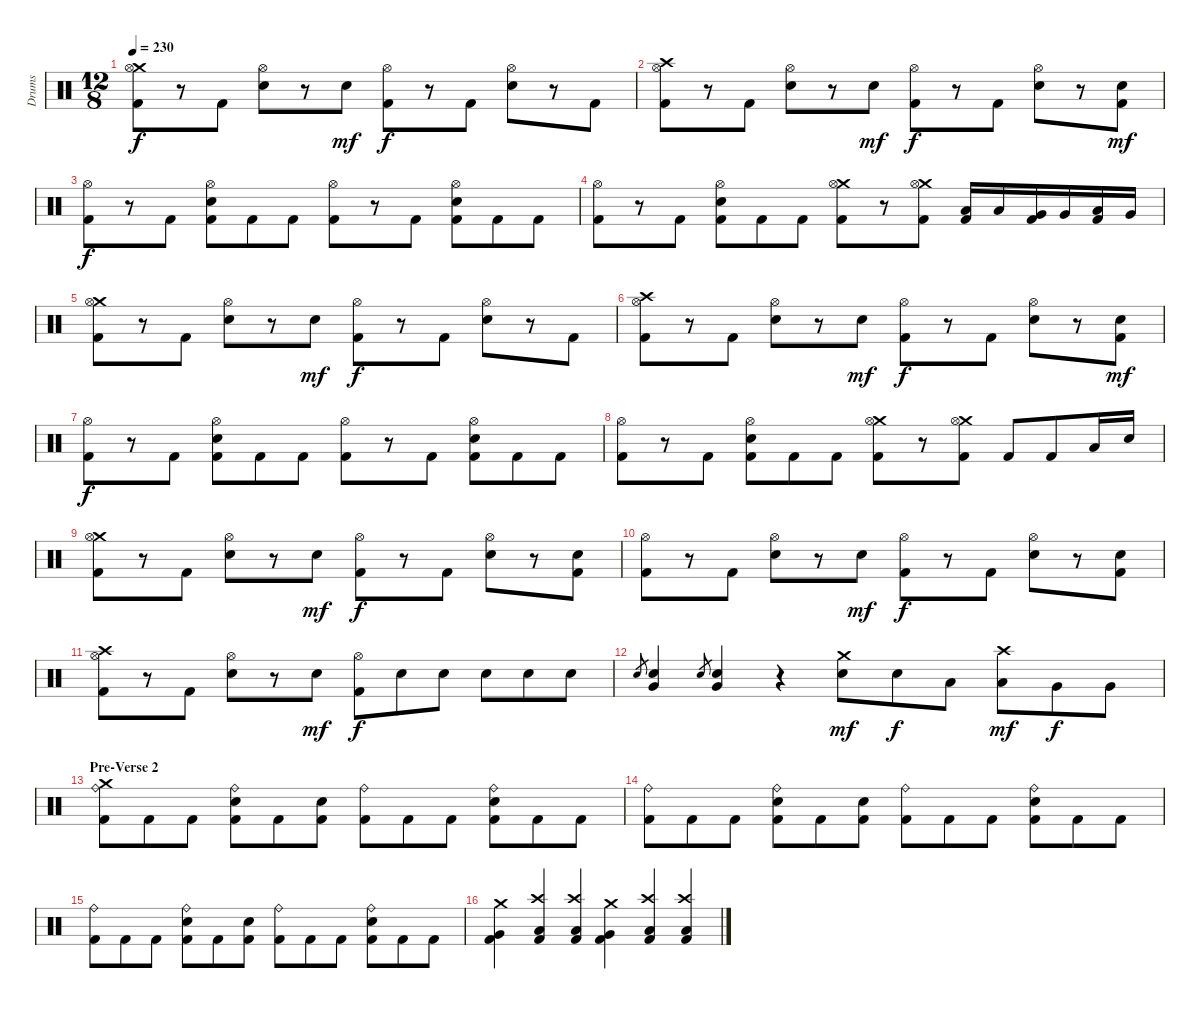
\track ("Drums" "Drums") {instrument percussion}
\staff {score}
\articulation defaults
\ts (12 8)
\tempo 230
\clef neutral
\ks c
("Crash medium (hit)" "Hi-Hat (open)" "Kick (hit) 2").8{dy f} r.8 "Kick (hit) 2".8 ("Hi-Hat (open)" "Snare (hit) 2").8 r.8 "Snare (hit) 2".8{dy mf} ("Hi-Hat (open)" "Kick (hit) 2").8{dy f} r.8 "Kick (hit) 2".8 ("Hi-Hat (open)" "Snare (hit) 2").8 r.8 "Kick (hit) 2".8 |
("Crash high (hit)" "Hi-Hat (open)" "Kick (hit) 2").8 r.8 "Kick (hit) 2".8 ("Hi-Hat (open)" "Snare (hit) 2").8 r.8 "Snare (hit) 2".8{dy mf} ("Hi-Hat (open)" "Kick (hit) 2").8{dy f} r.8 "Kick (hit) 2".8 ("Hi-Hat (open)" "Snare (hit) 2").8 r.8 ("Snare (hit) 2" "Kick (hit) 2").8{dy mf} |
("Hi-Hat (open)" "Kick (hit) 2").8{dy f} r.8 "Kick (hit) 2".8 ("Hi-Hat (open)" "Snare (hit) 2" "Kick (hit) 2").8 "Kick (hit) 2".8 "Kick (hit) 2".8 ("Hi-Hat (open)" "Kick (hit) 2").8 r.8 "Kick (hit) 2".8 ("Hi-Hat (open)" "Snare (hit) 2" "Kick (hit) 2").8 "Kick (hit) 2".8 "Kick (hit) 2".8 |
("Hi-Hat (open)" "Kick (hit) 2").8 r.8 "Kick (hit) 2".8 ("Hi-Hat (open)" "Snare (hit) 2" "Kick (hit) 2").8 "Kick (hit) 2".8 "Kick (hit) 2".8 ("Crash medium (hit)" "Hi-Hat (open)" "Kick (hit) 2").8 r.8 ("Crash medium (hit)" "Hi-Hat (open)" "Kick (hit) 2").8 ("Low Floor Tom (hit)" "Kick (hit) 2").16 "Low Floor Tom (hit)".16 ("Very Low Tom (hit)" "Kick (hit) 2").16 "Very Low Tom (hit)".16 ("Low Tom (hit)" "Kick (hit) 2").16 "Very Low Tom (hit)".16 |
("Crash medium (hit)" "Hi-Hat (open)" "Kick (hit) 2").8 r.8 "Kick (hit) 2".8 ("Hi-Hat (open)" "Snare (hit) 2").8 r.8 "Snare (hit) 2".8{dy mf} ("Hi-Hat (open)" "Kick (hit) 2").8{dy f} r.8 "Kick (hit) 2".8 ("Hi-Hat (open)" "Snare (hit) 2").8 r.8 "Kick (hit) 2".8 |
("Crash high (hit)" "Hi-Hat (open)" "Kick (hit) 2").8 r.8 "Kick (hit) 2".8 ("Hi-Hat (open)" "Snare (hit) 2").8 r.8 "Snare (hit) 2".8{dy mf} ("Hi-Hat (open)" "Kick (hit) 2").8{dy f} r.8 "Kick (hit) 2".8 ("Hi-Hat (open)" "Snare (hit) 2").8 r.8 ("Snare (hit) 2" "Kick (hit) 2").8{dy mf} |
("Hi-Hat (open)" "Kick (hit) 2").8{dy f} r.8 "Kick (hit) 2".8 ("Hi-Hat (open)" "Snare (hit) 2" "Kick (hit) 2").8 "Kick (hit) 2".8 "Kick (hit) 2".8 ("Hi-Hat (open)" "Kick (hit) 2").8 r.8 "Kick (hit) 2".8 ("Hi-Hat (open)" "Snare (hit) 2" "Kick (hit) 2").8 "Kick (hit) 2".8 "Kick (hit) 2".8 |
("Hi-Hat (open)" "Kick (hit) 2").8 r.8 "Kick (hit) 2".8 ("Hi-Hat (open)" "Snare (hit) 2" "Kick (hit) 2").8 "Kick (hit) 2".8 "Kick (hit) 2".8 ("Crash medium (hit)" "Hi-Hat (open)" "Kick (hit) 2").8 r.8 ("Crash medium (hit)" "Hi-Hat (open)" "Kick (hit) 2").8 "Kick (hit) 2".8 "Kick (hit) 2".8 "Low Tom (hit)".16 "Snare (hit) 2".16 |
("Crash medium (hit)" "Hi-Hat (open)" "Kick (hit) 2").8 r.8 "Kick (hit) 2".8 ("Hi-Hat (open)" "Snare (hit) 2").8 r.8 "Snare (hit) 2".8{dy mf} ("Hi-Hat (open)" "Kick (hit) 2").8{dy f} r.8 "Kick (hit) 2".8 ("Hi-Hat (open)" "Snare (hit) 2").8 r.8 ("Snare (hit) 2" "Kick (hit) 2").8 |
("Hi-Hat (open)" "Kick (hit) 2").8 r.8 "Kick (hit) 2".8 ("Hi-Hat (open)" "Snare (hit) 2").8 r.8 "Snare (hit) 2".8{dy mf} ("Hi-Hat (open)" "Kick (hit) 2").8{dy f} r.8 "Kick (hit) 2".8 ("Hi-Hat (open)" "Snare (hit) 2").8 r.8 ("Snare (hit) 2" "Kick (hit) 2").8 |
("Crash high (hit)" "Hi-Hat (open)" "Kick (hit) 2").8 r.8 "Kick (hit) 2".8 ("Hi-Hat (open)" "Snare (hit) 2").8 r.8 "Snare (hit) 2".8{dy mf} ("Hi-Hat (open)" "Kick (hit) 2").8{dy f} "Snare (hit) 2".8 "Snare (hit) 2".8 "Snare (hit) 2".8 "Snare (hit) 2".8 "Snare (hit) 2".8 |
"Snare (hit) 2".8{gr} ("Snare (hit) 2" "Very Low Tom (hit)").4 "Snare (hit) 2".8{gr} ("Snare (hit) 2" "Very Low Tom (hit)").4 r.4 ("Crash medium (hit)" "Snare (hit) 2").8{dy mf} "Snare (hit) 2".8{dy f} "Low Tom (hit)".8 ("Crash high (hit)" "Low Tom (hit)").8{dy mf} "Very Low Tom (hit)".8{dy f} "Very Low Tom (hit)".8 |
\section ("" "Pre-Verse 2")
("Crash medium (hit)" "Ride (bell)" "Kick (hit) 2").8 "Kick (hit) 2".8 "Kick (hit) 2".8 ("Ride (bell)" "Snare (hit) 2" "Kick (hit) 2").8 "Kick (hit) 2".8 ("Snare (hit) 2" "Kick (hit) 2").8 ("Ride (bell)" "Kick (hit) 2").8 "Kick (hit) 2".8 "Kick (hit) 2".8 ("Ride (bell)" "Snare (hit) 2" "Kick (hit) 2").8 "Kick (hit) 2".8 "Kick (hit) 2".8 |
("Ride (bell)" "Kick (hit) 2").8 "Kick (hit) 2".8 "Kick (hit) 2".8 ("Ride (bell)" "Snare (hit) 2" "Kick (hit) 2").8 "Kick (hit) 2".8 ("Snare (hit) 2" "Kick (hit) 2").8 ("Ride (bell)" "Kick (hit) 2").8 "Kick (hit) 2".8 "Kick (hit) 2".8 ("Ride (bell)" "Snare (hit) 2" "Kick (hit) 2").8 "Kick (hit) 2".8 "Kick (hit) 2".8 |
("Ride (bell)" "Kick (hit) 2").8 "Kick (hit) 2".8 "Kick (hit) 2".8 ("Ride (bell)" "Snare (hit) 2" "Kick (hit) 2").8 "Kick (hit) 2".8 ("Snare (hit) 2" "Kick (hit) 2").8 ("Ride (bell)" "Kick (hit) 2").8 "Kick (hit) 2".8 "Kick (hit) 2".8 ("Ride (bell)" "Snare (hit) 2" "Kick (hit) 2").8 "Kick (hit) 2".8 "Kick (hit) 2".8 |
("Crash medium (hit)" "Very Low Tom (hit)" "Kick (hit) 2").4 ("Crash high (hit)" "Low Floor Tom (hit)" "Kick (hit) 2").4 ("Crash high (hit)" "Low Floor Tom (hit)" "Kick (hit) 2").4 ("Crash medium (hit)" "Very Low Tom (hit)" "Kick (hit) 2").4 ("Crash high (hit)" "Low Floor Tom (hit)" "Kick (hit) 2").4 ("Crash high (hit)" "Low Floor Tom (hit)" "Kick (hit) 2").4
